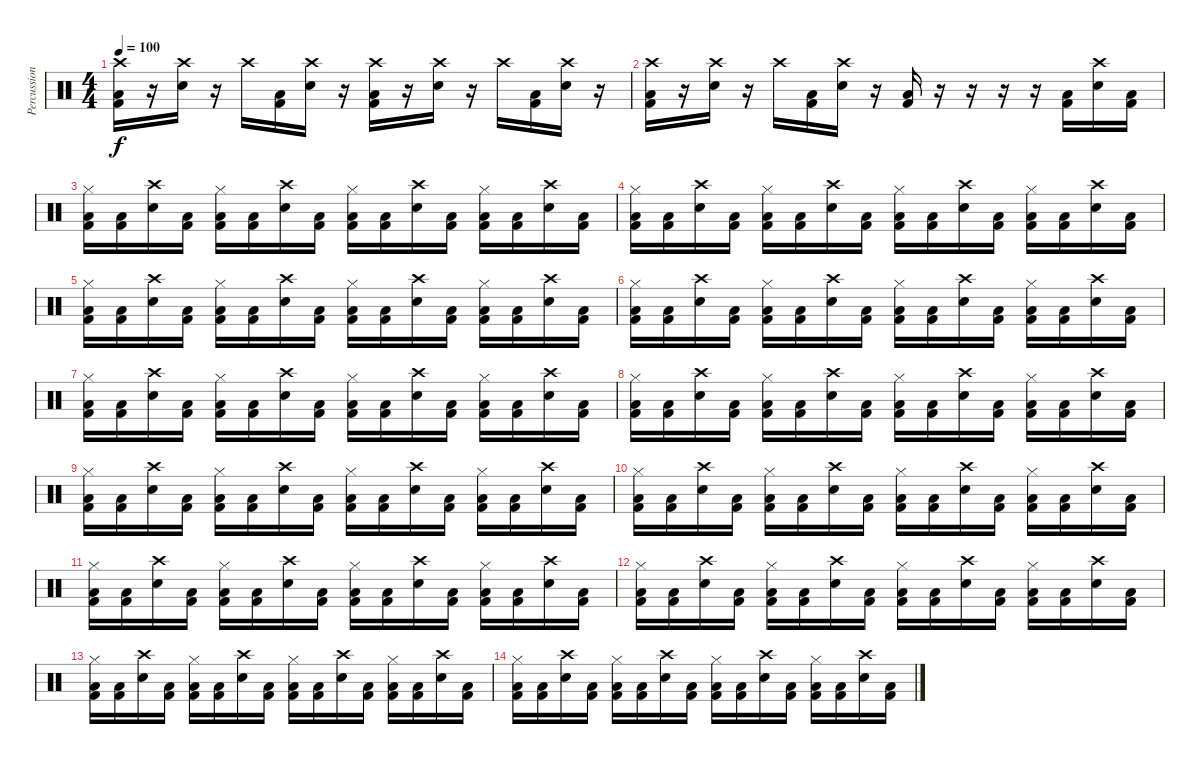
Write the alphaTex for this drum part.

\track ("Percussions" "Percussion") {instrument percussion}
\staff {score}
\articulation defaults
\ts (4 4)
\tempo 100
\clef neutral
\ks c
("Crash high (hit)" "Kick (hit) 2" "Low Floor Tom (hit)").16{dy f} r.16 ("Crash high (hit)" "Electric Snare (hit)").16 r.16 "Crash high (hit)".16 ("Kick (hit) 2" "Low Floor Tom (hit)").16 ("Crash high (hit)" "Electric Snare (hit)").16 r.16 ("Crash high (hit)" "Kick (hit) 2" "Low Floor Tom (hit)").16 r.16 ("Crash high (hit)" "Electric Snare (hit)").16 r.16 "Crash high (hit)".16 ("Kick (hit) 2" "Low Floor Tom (hit)").16 ("Crash high (hit)" "Electric Snare (hit)").16 r.16 |
("Crash high (hit)" "Kick (hit) 2" "Low Floor Tom (hit)").16 r.16 ("Crash high (hit)" "Electric Snare (hit)").16 r.16 "Crash high (hit)".16 ("Kick (hit) 2" "Low Floor Tom (hit)").16 ("Crash high (hit)" "Electric Snare (hit)").16 r.16 ("Kick (hit) 2" "Low Floor Tom (hit)").16 r.16 r.16 r.16 r.16 ("Kick (hit) 2" "Low Floor Tom (hit)").16 ("Crash high (hit)" "Electric Snare (hit)").16 ("Kick (hit) 2" "Low Floor Tom (hit)").16 |
("Hi-Hat (closed)" "Kick (hit) 2" "Low Floor Tom (hit)").16 ("Kick (hit) 2" "Low Floor Tom (hit)").16 ("Crash high (hit)" "Electric Snare (hit)").16 ("Kick (hit) 2" "Low Floor Tom (hit)").16 ("Hi-Hat (closed)" "Kick (hit) 2" "Low Floor Tom (hit)").16 ("Kick (hit) 2" "Low Floor Tom (hit)").16 ("Crash high (hit)" "Electric Snare (hit)").16 ("Kick (hit) 2" "Low Floor Tom (hit)").16 ("Hi-Hat (closed)" "Kick (hit) 2" "Low Floor Tom (hit)").16 ("Kick (hit) 2" "Low Floor Tom (hit)").16 ("Crash high (hit)" "Electric Snare (hit)").16 ("Kick (hit) 2" "Low Floor Tom (hit)").16 ("Hi-Hat (closed)" "Kick (hit) 2" "Low Floor Tom (hit)").16 ("Kick (hit) 2" "Low Floor Tom (hit)").16 ("Crash high (hit)" "Electric Snare (hit)").16 ("Kick (hit) 2" "Low Floor Tom (hit)").16 |
("Hi-Hat (closed)" "Kick (hit) 2" "Low Floor Tom (hit)").16 ("Kick (hit) 2" "Low Floor Tom (hit)").16 ("Crash high (hit)" "Electric Snare (hit)").16 ("Kick (hit) 2" "Low Floor Tom (hit)").16 ("Hi-Hat (closed)" "Kick (hit) 2" "Low Floor Tom (hit)").16 ("Kick (hit) 2" "Low Floor Tom (hit)").16 ("Crash high (hit)" "Electric Snare (hit)").16 ("Kick (hit) 2" "Low Floor Tom (hit)").16 ("Hi-Hat (closed)" "Kick (hit) 2" "Low Floor Tom (hit)").16 ("Kick (hit) 2" "Low Floor Tom (hit)").16 ("Crash high (hit)" "Electric Snare (hit)").16 ("Kick (hit) 2" "Low Floor Tom (hit)").16 ("Hi-Hat (closed)" "Kick (hit) 2" "Low Floor Tom (hit)").16 ("Kick (hit) 2" "Low Floor Tom (hit)").16 ("Crash high (hit)" "Electric Snare (hit)").16 ("Kick (hit) 2" "Low Floor Tom (hit)").16 |
("Hi-Hat (closed)" "Kick (hit) 2" "Low Floor Tom (hit)").16 ("Kick (hit) 2" "Low Floor Tom (hit)").16 ("Crash high (hit)" "Electric Snare (hit)").16 ("Kick (hit) 2" "Low Floor Tom (hit)").16 ("Hi-Hat (closed)" "Kick (hit) 2" "Low Floor Tom (hit)").16 ("Kick (hit) 2" "Low Floor Tom (hit)").16 ("Crash high (hit)" "Electric Snare (hit)").16 ("Kick (hit) 2" "Low Floor Tom (hit)").16 ("Hi-Hat (closed)" "Kick (hit) 2" "Low Floor Tom (hit)").16 ("Kick (hit) 2" "Low Floor Tom (hit)").16 ("Crash high (hit)" "Electric Snare (hit)").16 ("Kick (hit) 2" "Low Floor Tom (hit)").16 ("Hi-Hat (closed)" "Kick (hit) 2" "Low Floor Tom (hit)").16 ("Kick (hit) 2" "Low Floor Tom (hit)").16 ("Crash high (hit)" "Electric Snare (hit)").16 ("Kick (hit) 2" "Low Floor Tom (hit)").16 |
("Hi-Hat (closed)" "Kick (hit) 2" "Low Floor Tom (hit)").16 ("Kick (hit) 2" "Low Floor Tom (hit)").16 ("Crash high (hit)" "Electric Snare (hit)").16 ("Kick (hit) 2" "Low Floor Tom (hit)").16 ("Hi-Hat (closed)" "Kick (hit) 2" "Low Floor Tom (hit)").16 ("Kick (hit) 2" "Low Floor Tom (hit)").16 ("Crash high (hit)" "Electric Snare (hit)").16 ("Kick (hit) 2" "Low Floor Tom (hit)").16 ("Hi-Hat (closed)" "Kick (hit) 2" "Low Floor Tom (hit)").16 ("Kick (hit) 2" "Low Floor Tom (hit)").16 ("Crash high (hit)" "Electric Snare (hit)").16 ("Kick (hit) 2" "Low Floor Tom (hit)").16 ("Hi-Hat (closed)" "Kick (hit) 2" "Low Floor Tom (hit)").16 ("Kick (hit) 2" "Low Floor Tom (hit)").16 ("Crash high (hit)" "Electric Snare (hit)").16 ("Kick (hit) 2" "Low Floor Tom (hit)").16 |
("Hi-Hat (closed)" "Kick (hit) 2" "Low Floor Tom (hit)").16 ("Kick (hit) 2" "Low Floor Tom (hit)").16 ("Crash high (hit)" "Electric Snare (hit)").16 ("Kick (hit) 2" "Low Floor Tom (hit)").16 ("Hi-Hat (closed)" "Kick (hit) 2" "Low Floor Tom (hit)").16 ("Kick (hit) 2" "Low Floor Tom (hit)").16 ("Crash high (hit)" "Electric Snare (hit)").16 ("Kick (hit) 2" "Low Floor Tom (hit)").16 ("Hi-Hat (closed)" "Kick (hit) 2" "Low Floor Tom (hit)").16 ("Kick (hit) 2" "Low Floor Tom (hit)").16 ("Crash high (hit)" "Electric Snare (hit)").16 ("Kick (hit) 2" "Low Floor Tom (hit)").16 ("Hi-Hat (closed)" "Kick (hit) 2" "Low Floor Tom (hit)").16 ("Kick (hit) 2" "Low Floor Tom (hit)").16 ("Crash high (hit)" "Electric Snare (hit)").16 ("Kick (hit) 2" "Low Floor Tom (hit)").16 |
("Hi-Hat (closed)" "Kick (hit) 2" "Low Floor Tom (hit)").16 ("Kick (hit) 2" "Low Floor Tom (hit)").16 ("Crash high (hit)" "Electric Snare (hit)").16 ("Kick (hit) 2" "Low Floor Tom (hit)").16 ("Hi-Hat (closed)" "Kick (hit) 2" "Low Floor Tom (hit)").16 ("Kick (hit) 2" "Low Floor Tom (hit)").16 ("Crash high (hit)" "Electric Snare (hit)").16 ("Kick (hit) 2" "Low Floor Tom (hit)").16 ("Hi-Hat (closed)" "Kick (hit) 2" "Low Floor Tom (hit)").16 ("Kick (hit) 2" "Low Floor Tom (hit)").16 ("Crash high (hit)" "Electric Snare (hit)").16 ("Kick (hit) 2" "Low Floor Tom (hit)").16 ("Hi-Hat (closed)" "Kick (hit) 2" "Low Floor Tom (hit)").16 ("Kick (hit) 2" "Low Floor Tom (hit)").16 ("Crash high (hit)" "Electric Snare (hit)").16 ("Kick (hit) 2" "Low Floor Tom (hit)").16 |
("Hi-Hat (closed)" "Kick (hit) 2" "Low Floor Tom (hit)").16 ("Kick (hit) 2" "Low Floor Tom (hit)").16 ("Crash high (hit)" "Electric Snare (hit)").16 ("Kick (hit) 2" "Low Floor Tom (hit)").16 ("Hi-Hat (closed)" "Kick (hit) 2" "Low Floor Tom (hit)").16 ("Kick (hit) 2" "Low Floor Tom (hit)").16 ("Crash high (hit)" "Electric Snare (hit)").16 ("Kick (hit) 2" "Low Floor Tom (hit)").16 ("Hi-Hat (closed)" "Kick (hit) 2" "Low Floor Tom (hit)").16 ("Kick (hit) 2" "Low Floor Tom (hit)").16 ("Crash high (hit)" "Electric Snare (hit)").16 ("Kick (hit) 2" "Low Floor Tom (hit)").16 ("Hi-Hat (closed)" "Kick (hit) 2" "Low Floor Tom (hit)").16 ("Kick (hit) 2" "Low Floor Tom (hit)").16 ("Crash high (hit)" "Electric Snare (hit)").16 ("Kick (hit) 2" "Low Floor Tom (hit)").16 |
("Hi-Hat (closed)" "Kick (hit) 2" "Low Floor Tom (hit)").16 ("Kick (hit) 2" "Low Floor Tom (hit)").16 ("Crash high (hit)" "Electric Snare (hit)").16 ("Kick (hit) 2" "Low Floor Tom (hit)").16 ("Hi-Hat (closed)" "Kick (hit) 2" "Low Floor Tom (hit)").16 ("Kick (hit) 2" "Low Floor Tom (hit)").16 ("Crash high (hit)" "Electric Snare (hit)").16 ("Kick (hit) 2" "Low Floor Tom (hit)").16 ("Hi-Hat (closed)" "Kick (hit) 2" "Low Floor Tom (hit)").16 ("Kick (hit) 2" "Low Floor Tom (hit)").16 ("Crash high (hit)" "Electric Snare (hit)").16 ("Kick (hit) 2" "Low Floor Tom (hit)").16 ("Hi-Hat (closed)" "Kick (hit) 2" "Low Floor Tom (hit)").16 ("Kick (hit) 2" "Low Floor Tom (hit)").16 ("Crash high (hit)" "Electric Snare (hit)").16 ("Kick (hit) 2" "Low Floor Tom (hit)").16 |
("Hi-Hat (closed)" "Kick (hit) 2" "Low Floor Tom (hit)").16 ("Kick (hit) 2" "Low Floor Tom (hit)").16 ("Crash high (hit)" "Electric Snare (hit)").16 ("Kick (hit) 2" "Low Floor Tom (hit)").16 ("Hi-Hat (closed)" "Kick (hit) 2" "Low Floor Tom (hit)").16 ("Kick (hit) 2" "Low Floor Tom (hit)").16 ("Crash high (hit)" "Electric Snare (hit)").16 ("Kick (hit) 2" "Low Floor Tom (hit)").16 ("Hi-Hat (closed)" "Kick (hit) 2" "Low Floor Tom (hit)").16 ("Kick (hit) 2" "Low Floor Tom (hit)").16 ("Crash high (hit)" "Electric Snare (hit)").16 ("Kick (hit) 2" "Low Floor Tom (hit)").16 ("Hi-Hat (closed)" "Kick (hit) 2" "Low Floor Tom (hit)").16 ("Kick (hit) 2" "Low Floor Tom (hit)").16 ("Crash high (hit)" "Electric Snare (hit)").16 ("Kick (hit) 2" "Low Floor Tom (hit)").16 |
("Hi-Hat (closed)" "Kick (hit) 2" "Low Floor Tom (hit)").16 ("Kick (hit) 2" "Low Floor Tom (hit)").16 ("Crash high (hit)" "Electric Snare (hit)").16 ("Kick (hit) 2" "Low Floor Tom (hit)").16 ("Hi-Hat (closed)" "Kick (hit) 2" "Low Floor Tom (hit)").16 ("Kick (hit) 2" "Low Floor Tom (hit)").16 ("Crash high (hit)" "Electric Snare (hit)").16 ("Kick (hit) 2" "Low Floor Tom (hit)").16 ("Hi-Hat (closed)" "Kick (hit) 2" "Low Floor Tom (hit)").16 ("Kick (hit) 2" "Low Floor Tom (hit)").16 ("Crash high (hit)" "Electric Snare (hit)").16 ("Kick (hit) 2" "Low Floor Tom (hit)").16 ("Hi-Hat (closed)" "Kick (hit) 2" "Low Floor Tom (hit)").16 ("Kick (hit) 2" "Low Floor Tom (hit)").16 ("Crash high (hit)" "Electric Snare (hit)").16 ("Kick (hit) 2" "Low Floor Tom (hit)").16 |
("Hi-Hat (closed)" "Kick (hit) 2" "Low Floor Tom (hit)").16 ("Kick (hit) 2" "Low Floor Tom (hit)").16 ("Crash high (hit)" "Electric Snare (hit)").16 ("Kick (hit) 2" "Low Floor Tom (hit)").16 ("Hi-Hat (closed)" "Kick (hit) 2" "Low Floor Tom (hit)").16 ("Kick (hit) 2" "Low Floor Tom (hit)").16 ("Crash high (hit)" "Electric Snare (hit)").16 ("Kick (hit) 2" "Low Floor Tom (hit)").16 ("Hi-Hat (closed)" "Kick (hit) 2" "Low Floor Tom (hit)").16 ("Kick (hit) 2" "Low Floor Tom (hit)").16 ("Crash high (hit)" "Electric Snare (hit)").16 ("Kick (hit) 2" "Low Floor Tom (hit)").16 ("Hi-Hat (closed)" "Kick (hit) 2" "Low Floor Tom (hit)").16 ("Kick (hit) 2" "Low Floor Tom (hit)").16 ("Crash high (hit)" "Electric Snare (hit)").16 ("Kick (hit) 2" "Low Floor Tom (hit)").16 |
("Hi-Hat (closed)" "Kick (hit) 2" "Low Floor Tom (hit)").16 ("Kick (hit) 2" "Low Floor Tom (hit)").16 ("Crash high (hit)" "Electric Snare (hit)").16 ("Kick (hit) 2" "Low Floor Tom (hit)").16 ("Hi-Hat (closed)" "Kick (hit) 2" "Low Floor Tom (hit)").16 ("Kick (hit) 2" "Low Floor Tom (hit)").16 ("Crash high (hit)" "Electric Snare (hit)").16 ("Kick (hit) 2" "Low Floor Tom (hit)").16 ("Hi-Hat (closed)" "Kick (hit) 2" "Low Floor Tom (hit)").16 ("Kick (hit) 2" "Low Floor Tom (hit)").16 ("Crash high (hit)" "Electric Snare (hit)").16 ("Kick (hit) 2" "Low Floor Tom (hit)").16 ("Hi-Hat (closed)" "Kick (hit) 2" "Low Floor Tom (hit)").16 ("Kick (hit) 2" "Low Floor Tom (hit)").16 ("Crash high (hit)" "Electric Snare (hit)").16 ("Kick (hit) 2" "Low Floor Tom (hit)").16
